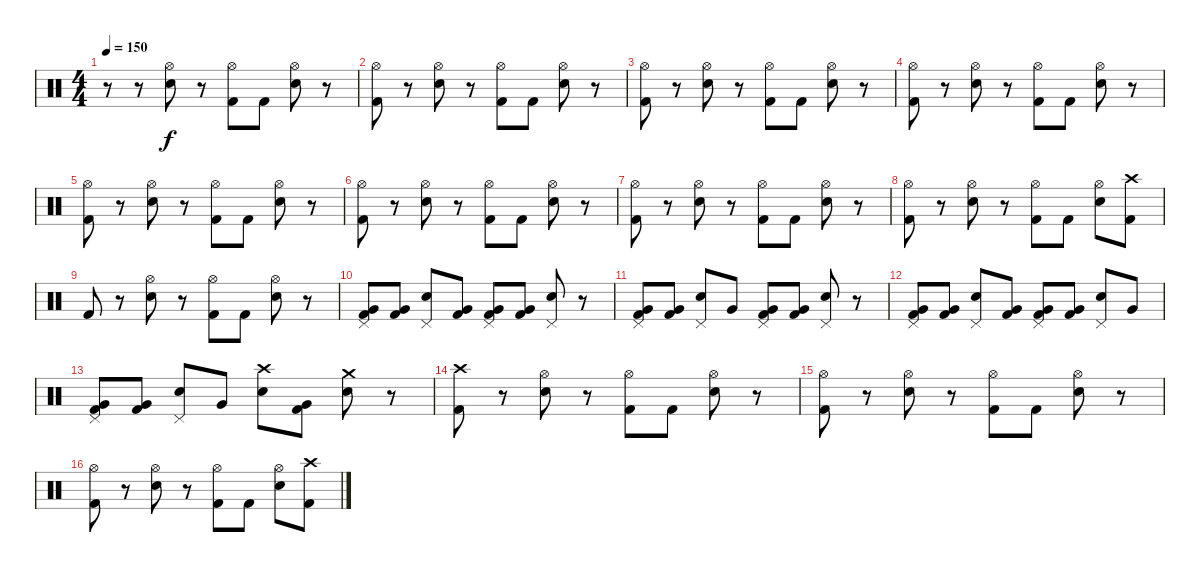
\track "" {instrument percussion}
\staff {score}
\articulation defaults
\ts (4 4)
\tempo 150
\clef neutral
\ks c
r.8{dy f} r.8 ("Hi-Hat (open)" "Electric Snare (hit)").8 r.8 ("Hi-Hat (open)" "Kick (hit) 2").8 "Kick (hit) 2".8 ("Hi-Hat (open)" "Electric Snare (hit)").8 r.8 |
("Hi-Hat (open)" "Kick (hit) 2").8 r.8 ("Hi-Hat (open)" "Electric Snare (hit)").8 r.8 ("Hi-Hat (open)" "Kick (hit) 2").8 "Kick (hit) 2".8 ("Hi-Hat (open)" "Electric Snare (hit)").8 r.8 |
("Hi-Hat (open)" "Kick (hit) 2").8 r.8 ("Hi-Hat (open)" "Electric Snare (hit)").8 r.8 ("Hi-Hat (open)" "Kick (hit) 2").8 "Kick (hit) 2".8 ("Hi-Hat (open)" "Electric Snare (hit)").8 r.8 |
("Hi-Hat (open)" "Kick (hit) 2").8 r.8 ("Hi-Hat (open)" "Electric Snare (hit)").8 r.8 ("Hi-Hat (open)" "Kick (hit) 2").8 "Kick (hit) 2".8 ("Hi-Hat (open)" "Electric Snare (hit)").8 r.8 |
("Hi-Hat (open)" "Kick (hit) 2").8 r.8 ("Hi-Hat (open)" "Electric Snare (hit)").8 r.8 ("Hi-Hat (open)" "Kick (hit) 2").8 "Kick (hit) 2".8 ("Hi-Hat (open)" "Electric Snare (hit)").8 r.8 |
("Hi-Hat (open)" "Kick (hit) 2").8 r.8 ("Hi-Hat (open)" "Electric Snare (hit)").8 r.8 ("Hi-Hat (open)" "Kick (hit) 2").8 "Kick (hit) 2".8 ("Hi-Hat (open)" "Electric Snare (hit)").8 r.8 |
("Hi-Hat (open)" "Kick (hit) 2").8 r.8 ("Hi-Hat (open)" "Electric Snare (hit)").8 r.8 ("Hi-Hat (open)" "Kick (hit) 2").8 "Kick (hit) 2".8 ("Hi-Hat (open)" "Electric Snare (hit)").8 r.8 |
("Hi-Hat (open)" "Kick (hit) 2").8 r.8 ("Hi-Hat (open)" "Electric Snare (hit)").8 r.8 ("Hi-Hat (open)" "Kick (hit) 2").8 "Kick (hit) 2".8 ("Hi-Hat (open)" "Electric Snare (hit)").8 ("Crash high (hit)" "Kick (hit) 2").8 |
"Kick (hit) 2".8 r.8 ("Hi-Hat (open)" "Electric Snare (hit)").8 r.8 ("Hi-Hat (open)" "Kick (hit) 2").8 "Kick (hit) 2".8 ("Hi-Hat (open)" "Electric Snare (hit)").8 r.8 |
("Pedal Hi-Hat (hit)" "Very Low Tom (hit)" "Kick (hit) 2").8 ("Very Low Tom (hit)" "Kick (hit) 2").8 ("Pedal Hi-Hat (hit)" "Electric Snare (hit)").8 ("Very Low Tom (hit)" "Kick (hit) 2").8 ("Pedal Hi-Hat (hit)" "Very Low Tom (hit)" "Kick (hit) 2").8 ("Very Low Tom (hit)" "Kick (hit) 2").8 ("Pedal Hi-Hat (hit)" "Electric Snare (hit)").8 r.8 |
("Pedal Hi-Hat (hit)" "Very Low Tom (hit)" "Kick (hit) 2").8 ("Very Low Tom (hit)" "Kick (hit) 2").8 ("Pedal Hi-Hat (hit)" "Electric Snare (hit)").8 "Very Low Tom (hit)".8 ("Pedal Hi-Hat (hit)" "Very Low Tom (hit)" "Kick (hit) 2").8 ("Very Low Tom (hit)" "Kick (hit) 2").8 ("Pedal Hi-Hat (hit)" "Electric Snare (hit)").8 r.8 |
("Pedal Hi-Hat (hit)" "Very Low Tom (hit)" "Kick (hit) 2").8 ("Very Low Tom (hit)" "Kick (hit) 2").8 ("Pedal Hi-Hat (hit)" "Electric Snare (hit)").8 ("Very Low Tom (hit)" "Kick (hit) 2").8 ("Pedal Hi-Hat (hit)" "Very Low Tom (hit)" "Kick (hit) 2").8 ("Very Low Tom (hit)" "Kick (hit) 2").8 ("Pedal Hi-Hat (hit)" "Electric Snare (hit)").8 "Very Low Tom (hit)".8 |
("Pedal Hi-Hat (hit)" "Very Low Tom (hit)" "Kick (hit) 2").8 ("Very Low Tom (hit)" "Kick (hit) 2").8 ("Pedal Hi-Hat (hit)" "Electric Snare (hit)").8 "Very Low Tom (hit)".8 ("Crash high (hit)" "Electric Snare (hit)").8 ("Very Low Tom (hit)" "Kick (hit) 2").8 ("Crash medium (hit)" "Electric Snare (hit)").8 r.8 |
("Crash high (hit)" "Kick (hit) 2").8 r.8 ("Hi-Hat (open)" "Electric Snare (hit)").8 r.8 ("Hi-Hat (open)" "Kick (hit) 2").8 "Kick (hit) 2".8 ("Hi-Hat (open)" "Electric Snare (hit)").8 r.8 |
("Hi-Hat (open)" "Kick (hit) 2").8 r.8 ("Hi-Hat (open)" "Electric Snare (hit)").8 r.8 ("Hi-Hat (open)" "Kick (hit) 2").8 "Kick (hit) 2".8 ("Hi-Hat (open)" "Electric Snare (hit)").8 r.8 |
("Hi-Hat (open)" "Kick (hit) 2").8 r.8 ("Hi-Hat (open)" "Electric Snare (hit)").8 r.8 ("Hi-Hat (open)" "Kick (hit) 2").8 "Kick (hit) 2".8 ("Hi-Hat (open)" "Electric Snare (hit)").8 ("Crash high (hit)" "Kick (hit) 2").8
